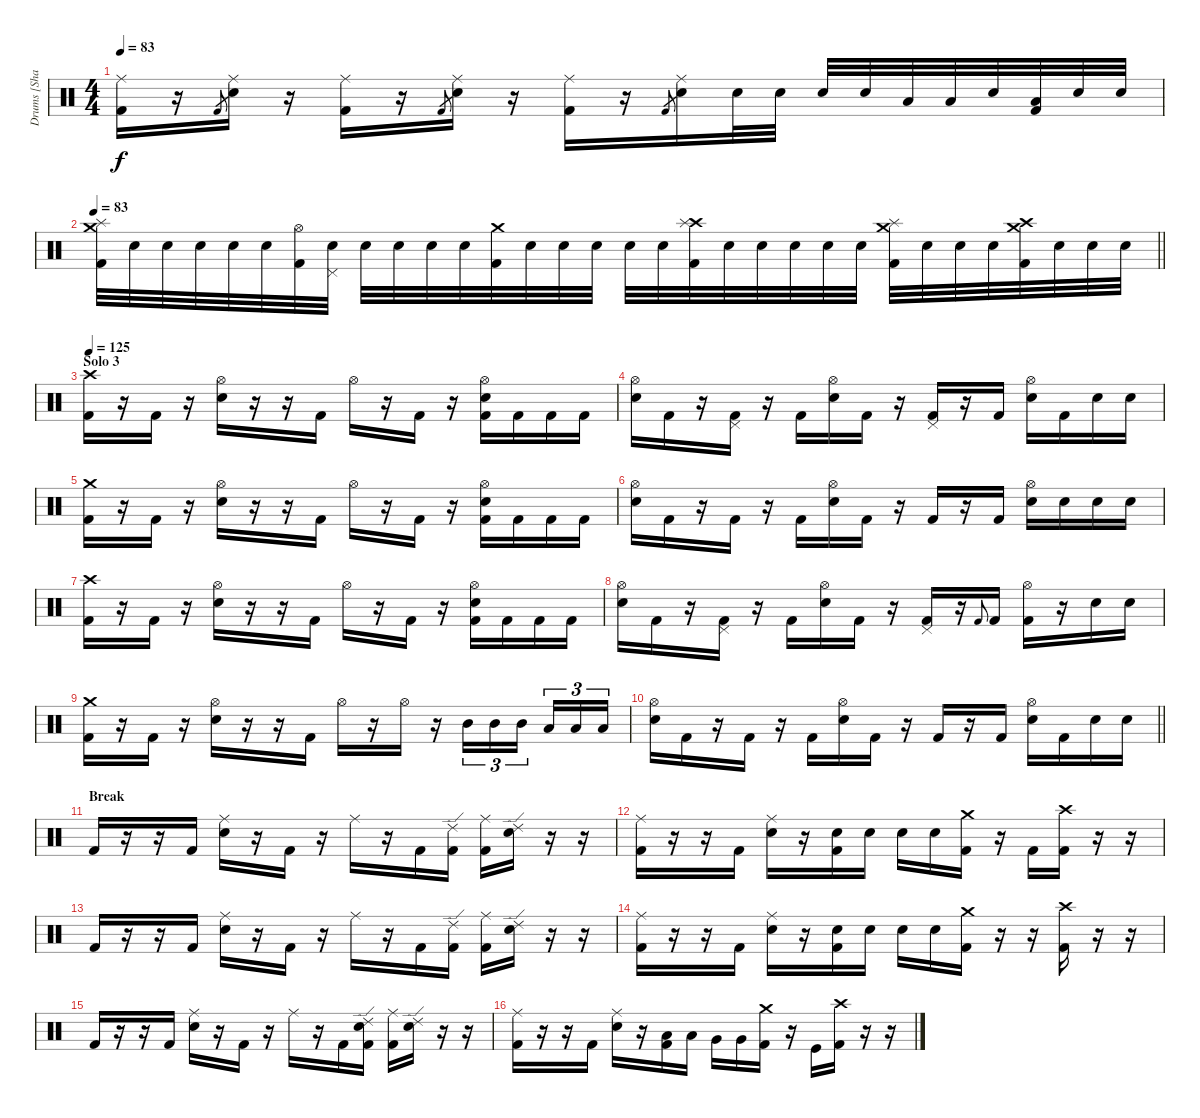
\track ("Drums [Shawn Drover]" "Drums [Sha") {instrument percussion}
\staff {score}
\articulation defaults
\ts (4 4)
\tempo 83
\clef neutral
\ks c
("Ride (middle)" "Kick (hit) 2").16{dy f} r.16 "Kick (hit) 2".8{gr} ("Ride (middle)" "Electric Snare (hit)").16 r.16 ("Ride (middle)" "Kick (hit) 2").16 r.16 "Kick (hit) 2".8{gr} ("Ride (middle)" "Electric Snare (hit)").16 r.16 ("Ride (middle)" "Kick (hit) 2").16 r.16 "Kick (hit) 2".8{gr} ("Ride (middle)" "Electric Snare (hit)").16 "Electric Snare (hit)".32 "Electric Snare (hit)".32 "Electric Snare (hit)".32 "Electric Snare (hit)".32 "Low Tom (hit)".32 "Low Tom (hit)".32 "Electric Snare (hit)".32 ("Low Tom (hit)" "Kick (hit) 2").32 "Electric Snare (hit)".32 "Electric Snare (hit)".32 |
\tempo 83
\barLineRight lightlight
("Crash medium (hit)" "Splash (hit)" "Kick (hit) 2").32 "Electric Snare (hit)".32 "Electric Snare (hit)".32 "Electric Snare (hit)".32 "Electric Snare (hit)".32 "Electric Snare (hit)".32 ("Hi-Hat (open)" "Kick (hit) 2").32 ("Pedal Hi-Hat (hit)" "Electric Snare (hit)").32 "Electric Snare (hit)".32 "Electric Snare (hit)".32 "Electric Snare (hit)".32 "Electric Snare (hit)".32 ("Crash medium (hit)" "Kick (hit) 2").32 "Electric Snare (hit)".32 "Electric Snare (hit)".32 "Electric Snare (hit)".32 "Electric Snare (hit)".32 "Electric Snare (hit)".32 ("Crash high (hit)" "Splash (hit)" "Kick (hit) 2").32 "Electric Snare (hit)".32 "Electric Snare (hit)".32 "Electric Snare (hit)".32 "Electric Snare (hit)".32 "Electric Snare (hit)".32 ("Crash medium (hit)" "Splash (hit)" "Kick (hit) 2").32 "Electric Snare (hit)".32 "Electric Snare (hit)".32 "Electric Snare (hit)".32 ("Crash medium (hit)" "Crash high (hit)" "Kick (hit) 2").32 "Electric Snare (hit)".32 "Electric Snare (hit)".32 "Electric Snare (hit)".32 |
\section ("" "Solo 3")
\tempo 125
("Crash high (hit)" "Kick (hit) 2").16 r.16 "Kick (hit) 2".16 r.16 ("Hi-Hat (open)" "Electric Snare (hit)").16 r.16 r.16 "Kick (hit) 2".16 "Hi-Hat (open)".16 r.16 "Kick (hit) 2".16 r.16 ("Hi-Hat (open)" "Electric Snare (hit)" "Kick (hit) 2").16 "Kick (hit) 2".16 "Kick (hit) 2".16 "Kick (hit) 2".16 |
("Hi-Hat (open)" "Electric Snare (hit)").16 "Kick (hit) 2".16 r.16 ("Pedal Hi-Hat (hit)" "Kick (hit) 2").16 r.16 "Kick (hit) 2".16 ("Hi-Hat (open)" "Electric Snare (hit)").16 "Kick (hit) 2".16 r.16 ("Pedal Hi-Hat (hit)" "Kick (hit) 2").16 r.16 "Kick (hit) 2".16 ("Hi-Hat (open)" "Electric Snare (hit)").16 "Kick (hit) 2".16 "Electric Snare (hit)".16 "Electric Snare (hit)".16 |
("Crash medium (hit)" "Kick (hit) 2").16 r.16 "Kick (hit) 2".16 r.16 ("Hi-Hat (open)" "Electric Snare (hit)").16 r.16 r.16 "Kick (hit) 2".16 "Hi-Hat (open)".16 r.16 "Kick (hit) 2".16 r.16 ("Hi-Hat (open)" "Electric Snare (hit)" "Kick (hit) 2").16 "Kick (hit) 2".16 "Kick (hit) 2".16 "Kick (hit) 2".16 |
("Hi-Hat (open)" "Electric Snare (hit)").16 "Kick (hit) 2".16 r.16 "Kick (hit) 2".16 r.16 "Kick (hit) 2".16 ("Hi-Hat (open)" "Electric Snare (hit)").16 "Kick (hit) 2".16 r.16 "Kick (hit) 2".16 r.16 "Kick (hit) 2".16 ("Hi-Hat (open)" "Electric Snare (hit)").16 "Electric Snare (hit)".16 "Electric Snare (hit)".16 "Electric Snare (hit)".16 |
("Crash high (hit)" "Kick (hit) 2").16 r.16 "Kick (hit) 2".16 r.16 ("Hi-Hat (open)" "Electric Snare (hit)").16 r.16 r.16 "Kick (hit) 2".16 "Hi-Hat (open)".16 r.16 "Kick (hit) 2".16 r.16 ("Hi-Hat (open)" "Electric Snare (hit)" "Kick (hit) 2").16 "Kick (hit) 2".16 "Kick (hit) 2".16 "Kick (hit) 2".16 |
("Hi-Hat (open)" "Electric Snare (hit)").16 "Kick (hit) 2".16 r.16 ("Pedal Hi-Hat (hit)" "Kick (hit) 2").16 r.16 "Kick (hit) 2".16 ("Hi-Hat (open)" "Electric Snare (hit)").16 "Kick (hit) 2".16 r.16 ("Pedal Hi-Hat (hit)" "Kick (hit) 2").16 r.16 "Kick (hit) 2".8{gr onbeat} "Kick (hit) 2".16 ("Hi-Hat (open)" "Kick (hit) 2").16 r.16 "Electric Snare (hit)".16 "Electric Snare (hit)".16 |
("Crash medium (hit)" "Kick (hit) 2").16 r.16 "Kick (hit) 2".16 r.16 ("Hi-Hat (open)" "Electric Snare (hit)").16 r.16 r.16 "Kick (hit) 2".16 "Hi-Hat (open)".16 r.16 "Hi-Hat (open)".16 r.16 "Mid Tom (hit)".16{tu (3 2)} "Mid Tom (hit)".16{tu (3 2)} "Mid Tom (hit)".16{tu (3 2) beam splitsecondary} "Low Tom (hit)".16{tu (3 2)} "Low Tom (hit)".16{tu (3 2)} "Low Tom (hit)".16{tu (3 2)} |
\barLineRight lightlight
("Hi-Hat (open)" "Electric Snare (hit)").16 "Kick (hit) 2".16 r.16 "Kick (hit) 2".16 r.16 "Kick (hit) 2".16 ("Hi-Hat (open)" "Electric Snare (hit)").16 "Kick (hit) 2".16 r.16 "Kick (hit) 2".16 r.16 "Kick (hit) 2".16 ("Hi-Hat (open)" "Electric Snare (hit)").16 "Kick (hit) 2".16 "Electric Snare (hit)".16 "Electric Snare (hit)".16 |
\section ("" "Break")
"Kick (hit) 2".16 r.16 r.16 "Kick (hit) 2".16 ("Ride (middle)" "Electric Snare (hit)").16 r.16 "Kick (hit) 2".16 r.16 "Ride (middle)".16 r.16 "Kick (hit) 2".16 ("Ride (edge) 2" "Kick (hit) 2").16 ("Ride (middle)" "Kick (hit) 2").16 ("Ride (edge) 2" "Electric Snare (hit)").16 r.16 r.16 |
("Ride (middle)" "Kick (hit) 2").16 r.16 r.16 "Kick (hit) 2".16 ("Ride (middle)" "Electric Snare (hit)").16 r.16 ("Electric Snare (hit)" "Kick (hit) 2").16 "Electric Snare (hit)".16 "Electric Snare (hit)".16 "Electric Snare (hit)".16 ("Crash medium (hit)" "Kick (hit) 2").16 r.16 "Kick (hit) 2".16 ("Crash high (hit)" "Kick (hit) 2").16 r.16 r.16 |
"Kick (hit) 2".16 r.16 r.16 "Kick (hit) 2".16 ("Ride (middle)" "Electric Snare (hit)").16 r.16 "Kick (hit) 2".16 r.16 "Ride (middle)".16 r.16 "Kick (hit) 2".16 ("Ride (edge) 2" "Kick (hit) 2").16 ("Ride (middle)" "Kick (hit) 2").16 ("Ride (edge) 2" "Electric Snare (hit)").16 r.16 r.16 |
("Ride (middle)" "Kick (hit) 2").16 r.16 r.16 "Kick (hit) 2".16 ("Ride (middle)" "Electric Snare (hit)").16 r.16 ("Electric Snare (hit)" "Kick (hit) 2").16 "Electric Snare (hit)".16 "Electric Snare (hit)".16 "Electric Snare (hit)".16 ("Crash medium (hit)" "Kick (hit) 2").16 r.16 r.16 ("Crash high (hit)" "Kick (hit) 2").16 r.16 r.16 |
"Kick (hit) 2".16 r.16 r.16 "Kick (hit) 2".16 ("Ride (middle)" "Electric Snare (hit)").16 r.16 "Kick (hit) 2".16 r.16 "Ride (middle)".16 r.16 "Kick (hit) 2".16 ("Ride (edge) 2" "Metronome (bell)" "Kick (hit) 2").16 ("Ride (middle)" "Kick (hit) 2").16 ("Ride (edge) 2" "Electric Snare (hit)").16 r.16 r.16 |
("Ride (middle)" "Kick (hit) 2").16 r.16 r.16 "Kick (hit) 2".16 ("Ride (middle)" "Electric Snare (hit)").16 r.16 ("Low Tom (hit)" "Kick (hit) 2").16 "Low Tom (hit)".16 "Very Low Tom (hit)".16 "Very Low Tom (hit)".16 ("Crash medium (hit)" "Kick (hit) 2").16 r.16 "Kick (hit)".16 ("Crash high (hit)" "Kick (hit) 2").16 r.16 r.16
